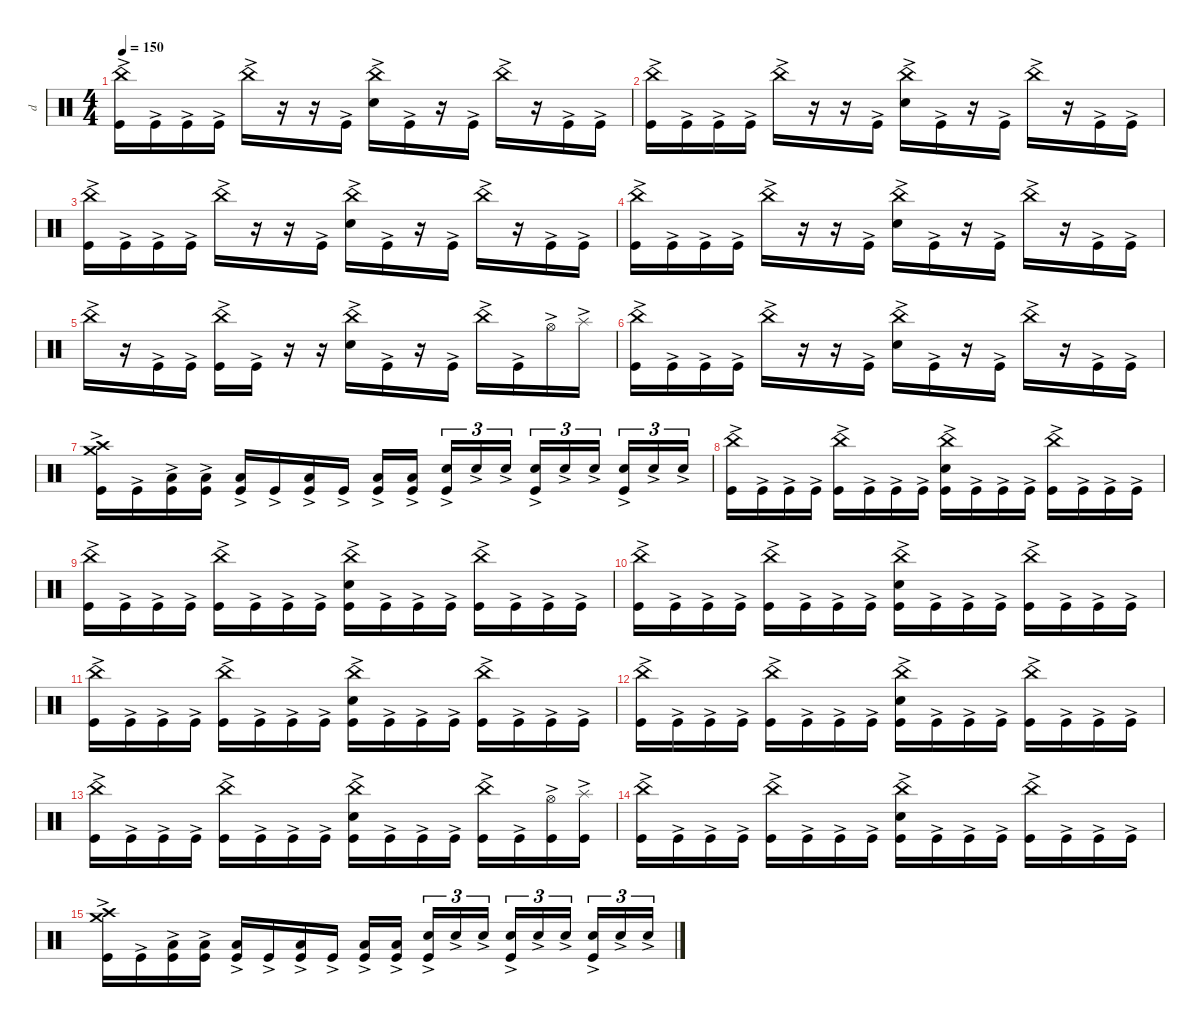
\defaultSystemsLayout 4
\hideDynamics
\bracketExtendMode nobrackets
\otherSystemsTrackNameOrientation horizontal
\track ("Drumkit" "d") {instrument percussion}
\staff {score}
\articulation defaults
\ts (4 4)
\tempo 150
\clef neutral
\ks c
("China (hit)"{ac} "Kick (hit)"{ac}).16{dy mf beam Down} "Kick (hit)"{ac}.16{beam Down} "Kick (hit)"{ac}.16{beam Down} "Kick (hit)"{ac}.16{beam Down} "China (hit)"{ac}.16{beam Down} r.16{beam Down} r.16{beam Down} "Kick (hit)"{ac}.16{beam Down} ("China (hit)"{ac} "Snare (hit) 2"{ac}).16{beam Down} "Kick (hit)"{ac}.16{beam Down} r.16{beam Down} "Kick (hit)"{ac}.16{beam Down} "China (hit)"{ac}.16{beam Down} r.16{beam Down} "Kick (hit)"{ac}.16{beam Down} "Kick (hit)"{ac}.16{beam Down} |
("China (hit)"{ac} "Kick (hit)"{ac}).16{beam Down} "Kick (hit)"{ac}.16{beam Down} "Kick (hit)"{ac}.16{beam Down} "Kick (hit)"{ac}.16{beam Down} "China (hit)"{ac}.16{beam Down} r.16{beam Down} r.16{beam Down} "Kick (hit)"{ac}.16{beam Down} ("China (hit)"{ac} "Snare (hit) 2"{ac}).16{beam Down} "Kick (hit)"{ac}.16{beam Down} r.16{beam Down} "Kick (hit)"{ac}.16{beam Down} "China (hit)"{ac}.16{beam Down} r.16{beam Down} "Kick (hit)"{ac}.16{beam Down} "Kick (hit)"{ac}.16{beam Down} |
("China (hit)"{ac} "Kick (hit)"{ac}).16{beam Down} "Kick (hit)"{ac}.16{beam Down} "Kick (hit)"{ac}.16{beam Down} "Kick (hit)"{ac}.16{beam Down} "China (hit)"{ac}.16{beam Down} r.16{beam Down} r.16{beam Down} "Kick (hit)"{ac}.16{beam Down} ("China (hit)"{ac} "Snare (hit) 2"{ac}).16{beam Down} "Kick (hit)"{ac}.16{beam Down} r.16{beam Down} "Kick (hit)"{ac}.16{beam Down} "China (hit)"{ac}.16{beam Down} r.16{beam Down} "Kick (hit)"{ac}.16{beam Down} "Kick (hit)"{ac}.16{beam Down} |
("China (hit)"{ac} "Kick (hit)"{ac}).16{beam Down} "Kick (hit)"{ac}.16{beam Down} "Kick (hit)"{ac}.16{beam Down} "Kick (hit)"{ac}.16{beam Down} "China (hit)"{ac}.16{beam Down} r.16{beam Down} r.16{beam Down} "Kick (hit)"{ac}.16{beam Down} ("China (hit)"{ac} "Snare (hit) 2"{ac}).16{beam Down} "Kick (hit)"{ac}.16{beam Down} r.16{beam Down} "Kick (hit)"{ac}.16{beam Down} "China (hit)"{ac}.16{beam Down} r.16{beam Down} "Kick (hit)"{ac}.16{beam Down} "Kick (hit)"{ac}.16{beam Down} |
"China (hit)"{ac}.16{beam Down} r.16{beam Down} "Kick (hit)"{ac}.16{beam Down} "Kick (hit)"{ac}.16{beam Down} ("China (hit)"{ac} "Kick (hit)"{ac}).16{beam Down} "Kick (hit)"{ac}.16{beam Down} r.16{beam Down} r.16{beam Down} ("China (hit)"{ac} "Snare (hit) 2"{ac}).16{beam Down} "Kick (hit)"{ac}.16{beam Down} r.16{beam Down} "Kick (hit)"{ac}.16{beam Down} "China (hit)"{ac}.16{beam Down} "Kick (hit)"{ac}.16{beam Down} "Hi-Hat (open)"{ac}.16{beam Down} "Splash (hit)"{ac}.16{beam Down} |
("China (hit)"{ac} "Kick (hit)"{ac}).16{beam Down} "Kick (hit)"{ac}.16{beam Down} "Kick (hit)"{ac}.16{beam Down} "Kick (hit)"{ac}.16{beam Down} "China (hit)"{ac}.16{beam Down} r.16{beam Down} r.16{beam Down} "Kick (hit)"{ac}.16{beam Down} ("China (hit)"{ac} "Snare (hit) 2"{ac}).16{beam Down} "Kick (hit)"{ac}.16{beam Down} r.16{beam Down} "Kick (hit)"{ac}.16{beam Down} "China (hit)"{ac}.16{beam Down} r.16{beam Down} "Kick (hit)"{ac}.16{beam Down} "Kick (hit)"{ac}.16{beam Down} |
("Crash high (hit)"{ac} "Crash medium (hit)"{ac} "Kick (hit)"{ac}).16{beam Down} "Kick (hit)"{ac}.16{beam Down} ("Low Floor Tom (hit)"{ac} "Kick (hit)"{ac}).16{beam Down} ("Low Floor Tom (hit)"{ac} "Kick (hit)"{ac}).16{beam Down} ("Low Floor Tom (hit)"{ac} "Kick (hit)"{ac}).16{beam Up} "Kick (hit)"{ac}.16{beam Up} ("Low Floor Tom (hit)"{ac} "Kick (hit)"{ac}).16{beam Up} "Kick (hit)"{ac}.16{beam Up} ("Low Floor Tom (hit)"{ac} "Kick (hit)"{ac}).16{beam Up} ("Low Floor Tom (hit)"{ac} "Kick (hit)"{ac}).16{beam Up} ("Snare (hit) 2"{ac} "Kick (hit)"{ac}).16{tu (3 2) beam Up} "Snare (hit) 2"{ac}.16{tu (3 2) beam Up} "Snare (hit) 2"{ac}.16{tu (3 2) beam Up} ("Snare (hit) 2"{ac} "Kick (hit)"{ac}).16{tu (3 2) beam Up} "Snare (hit) 2"{ac}.16{tu (3 2) beam Up} "Snare (hit) 2"{ac}.16{tu (3 2) beam Up} ("Snare (hit) 2"{ac} "Kick (hit)"{ac}).16{tu (3 2) beam Up} "Snare (hit) 2"{ac}.16{tu (3 2) beam Up} "Snare (hit) 2"{ac}.16{tu (3 2) beam Up} |
("China (hit)"{ac} "Kick (hit)"{ac}).16{beam Down} "Kick (hit)"{ac}.16{beam Down} "Kick (hit)"{ac}.16{beam Down} "Kick (hit)"{ac}.16{beam Down} ("China (hit)"{ac} "Kick (hit)"{ac}).16{beam Down} "Kick (hit)"{ac}.16{beam Down} "Kick (hit)"{ac}.16{beam Down} "Kick (hit)"{ac}.16{beam Down} ("China (hit)"{ac} "Snare (hit) 2"{ac} "Kick (hit)"{ac}).16{beam Down} "Kick (hit)"{ac}.16{beam Down} "Kick (hit)"{ac}.16{beam Down} "Kick (hit)"{ac}.16{beam Down} ("China (hit)"{ac} "Kick (hit)"{ac}).16{beam Down} "Kick (hit)"{ac}.16{beam Down} "Kick (hit)"{ac}.16{beam Down} "Kick (hit)"{ac}.16{beam Down} |
("China (hit)"{ac} "Kick (hit)"{ac}).16{beam Down} "Kick (hit)"{ac}.16{beam Down} "Kick (hit)"{ac}.16{beam Down} "Kick (hit)"{ac}.16{beam Down} ("China (hit)"{ac} "Kick (hit)"{ac}).16{beam Down} "Kick (hit)"{ac}.16{beam Down} "Kick (hit)"{ac}.16{beam Down} "Kick (hit)"{ac}.16{beam Down} ("China (hit)"{ac} "Snare (hit) 2"{ac} "Kick (hit)"{ac}).16{beam Down} "Kick (hit)"{ac}.16{beam Down} "Kick (hit)"{ac}.16{beam Down} "Kick (hit)"{ac}.16{beam Down} ("China (hit)"{ac} "Kick (hit)"{ac}).16{beam Down} "Kick (hit)"{ac}.16{beam Down} "Kick (hit)"{ac}.16{beam Down} "Kick (hit)"{ac}.16{beam Down} |
("China (hit)"{ac} "Kick (hit)"{ac}).16{beam Down} "Kick (hit)"{ac}.16{beam Down} "Kick (hit)"{ac}.16{beam Down} "Kick (hit)"{ac}.16{beam Down} ("China (hit)"{ac} "Kick (hit)"{ac}).16{beam Down} "Kick (hit)"{ac}.16{beam Down} "Kick (hit)"{ac}.16{beam Down} "Kick (hit)"{ac}.16{beam Down} ("China (hit)"{ac} "Snare (hit) 2"{ac} "Kick (hit)"{ac}).16{beam Down} "Kick (hit)"{ac}.16{beam Down} "Kick (hit)"{ac}.16{beam Down} "Kick (hit)"{ac}.16{beam Down} ("China (hit)"{ac} "Kick (hit)"{ac}).16{beam Down} "Kick (hit)"{ac}.16{beam Down} "Kick (hit)"{ac}.16{beam Down} "Kick (hit)"{ac}.16{beam Down} |
("China (hit)"{ac} "Kick (hit)"{ac}).16{beam Down} "Kick (hit)"{ac}.16{beam Down} "Kick (hit)"{ac}.16{beam Down} "Kick (hit)"{ac}.16{beam Down} ("China (hit)"{ac} "Kick (hit)"{ac}).16{beam Down} "Kick (hit)"{ac}.16{beam Down} "Kick (hit)"{ac}.16{beam Down} "Kick (hit)"{ac}.16{beam Down} ("China (hit)"{ac} "Snare (hit) 2"{ac} "Kick (hit)"{ac}).16{beam Down} "Kick (hit)"{ac}.16{beam Down} "Kick (hit)"{ac}.16{beam Down} "Kick (hit)"{ac}.16{beam Down} ("China (hit)"{ac} "Kick (hit)"{ac}).16{beam Down} "Kick (hit)"{ac}.16{beam Down} "Kick (hit)"{ac}.16{beam Down} "Kick (hit)"{ac}.16{beam Down} |
("China (hit)"{ac} "Kick (hit)"{ac}).16{beam Down} "Kick (hit)"{ac}.16{beam Down} "Kick (hit)"{ac}.16{beam Down} "Kick (hit)"{ac}.16{beam Down} ("China (hit)"{ac} "Kick (hit)"{ac}).16{beam Down} "Kick (hit)"{ac}.16{beam Down} "Kick (hit)"{ac}.16{beam Down} "Kick (hit)"{ac}.16{beam Down} ("China (hit)"{ac} "Snare (hit) 2"{ac} "Kick (hit)"{ac}).16{beam Down} "Kick (hit)"{ac}.16{beam Down} "Kick (hit)"{ac}.16{beam Down} "Kick (hit)"{ac}.16{beam Down} ("China (hit)"{ac} "Kick (hit)"{ac}).16{beam Down} "Kick (hit)"{ac}.16{beam Down} "Kick (hit)"{ac}.16{beam Down} "Kick (hit)"{ac}.16{beam Down} |
("China (hit)"{ac} "Kick (hit)"{ac}).16{beam Down} "Kick (hit)"{ac}.16{beam Down} "Kick (hit)"{ac}.16{beam Down} "Kick (hit)"{ac}.16{beam Down} ("China (hit)"{ac} "Kick (hit)"{ac}).16{beam Down} "Kick (hit)"{ac}.16{beam Down} "Kick (hit)"{ac}.16{beam Down} "Kick (hit)"{ac}.16{beam Down} ("China (hit)"{ac} "Snare (hit) 2"{ac} "Kick (hit)"{ac}).16{beam Down} "Kick (hit)"{ac}.16{beam Down} "Kick (hit)"{ac}.16{beam Down} "Kick (hit)"{ac}.16{beam Down} ("China (hit)"{ac} "Kick (hit)"{ac}).16{beam Down} "Kick (hit)"{ac}.16{beam Down} ("Hi-Hat (open)"{ac} "Kick (hit)"{ac}).16{beam Down} ("Splash (hit)"{ac} "Kick (hit)"{ac}).16{beam Down} |
("China (hit)"{ac} "Kick (hit)"{ac}).16{beam Down} "Kick (hit)"{ac}.16{beam Down} "Kick (hit)"{ac}.16{beam Down} "Kick (hit)"{ac}.16{beam Down} ("China (hit)"{ac} "Kick (hit)"{ac}).16{beam Down} "Kick (hit)"{ac}.16{beam Down} "Kick (hit)"{ac}.16{beam Down} "Kick (hit)"{ac}.16{beam Down} ("China (hit)"{ac} "Snare (hit) 2"{ac} "Kick (hit)"{ac}).16{beam Down} "Kick (hit)"{ac}.16{beam Down} "Kick (hit)"{ac}.16{beam Down} "Kick (hit)"{ac}.16{beam Down} ("China (hit)"{ac} "Kick (hit)"{ac}).16{beam Down} "Kick (hit)"{ac}.16{beam Down} "Kick (hit)"{ac}.16{beam Down} "Kick (hit)"{ac}.16{beam Down} |
("Crash high (hit)"{ac} "Crash medium (hit)"{ac} "Kick (hit)"{ac}).16{beam Down} "Kick (hit)"{ac}.16{beam Down} ("Low Floor Tom (hit)"{ac} "Kick (hit)"{ac}).16{beam Down} ("Low Floor Tom (hit)"{ac} "Kick (hit)"{ac}).16{beam Down} ("Low Floor Tom (hit)"{ac} "Kick (hit)"{ac}).16{beam Up} "Kick (hit)"{ac}.16{beam Up} ("Low Floor Tom (hit)"{ac} "Kick (hit)"{ac}).16{beam Up} "Kick (hit)"{ac}.16{beam Up} ("Low Floor Tom (hit)"{ac} "Kick (hit)"{ac}).16{beam Up} ("Low Floor Tom (hit)"{ac} "Kick (hit)"{ac}).16{beam Up} ("Snare (hit) 2"{ac} "Kick (hit)"{ac}).16{tu (3 2) beam Up} "Snare (hit) 2"{ac}.16{tu (3 2) beam Up} "Snare (hit) 2"{ac}.16{tu (3 2) beam Up} ("Snare (hit) 2"{ac} "Kick (hit)"{ac}).16{tu (3 2) beam Up} "Snare (hit) 2"{ac}.16{tu (3 2) beam Up} "Snare (hit) 2"{ac}.16{tu (3 2) beam Up} ("Snare (hit) 2"{ac} "Kick (hit)"{ac}).16{tu (3 2) beam Up} "Snare (hit) 2"{ac}.16{tu (3 2) beam Up} "Snare (hit) 2"{ac}.16{tu (3 2) beam Up}
